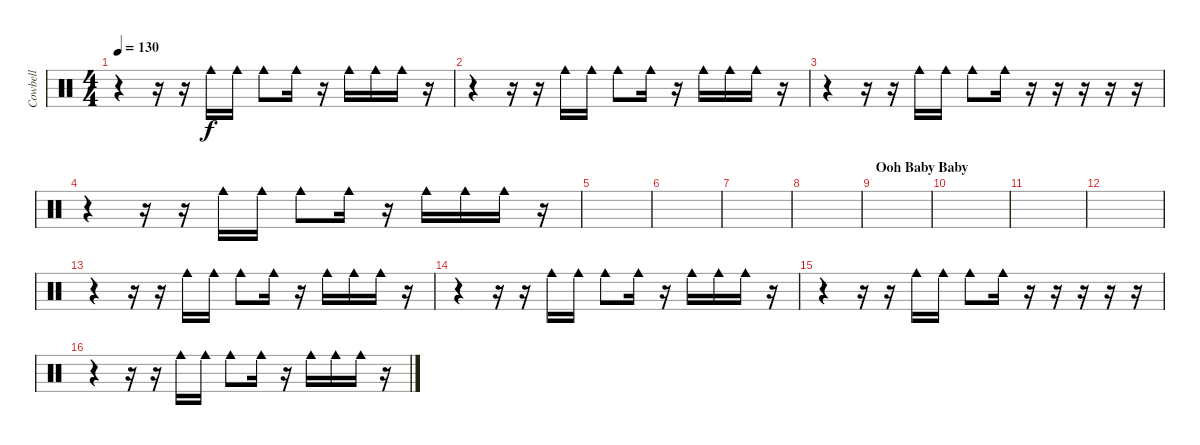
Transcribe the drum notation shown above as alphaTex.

\track ("Cowbell" "Cowbell") {instrument percussion}
\staff {score}
\articulation defaults
\ts (4 4)
\tempo 130
\clef neutral
\ks c
r.4{dy f} r.16 r.16 "Cowbell medium (hit)".16 "Cowbell medium (hit)".16 "Cowbell medium (hit)".8 "Cowbell medium (hit)".16 r.16 "Cowbell medium (hit)".16 "Cowbell medium (hit)".16 "Cowbell medium (hit)".16 r.16 |
r.4 r.16 r.16 "Cowbell medium (hit)".16 "Cowbell medium (hit)".16 "Cowbell medium (hit)".8 "Cowbell medium (hit)".16 r.16 "Cowbell medium (hit)".16 "Cowbell medium (hit)".16 "Cowbell medium (hit)".16 r.16 |
r.4 r.16 r.16 "Cowbell medium (hit)".16 "Cowbell medium (hit)".16 "Cowbell medium (hit)".8 "Cowbell medium (hit)".16 r.16 r.16 r.16 r.16 r.16 |
r.4 r.16 r.16 "Cowbell medium (hit)".16 "Cowbell medium (hit)".16 "Cowbell medium (hit)".8 "Cowbell medium (hit)".16 r.16 "Cowbell medium (hit)".16 "Cowbell medium (hit)".16 "Cowbell medium (hit)".16 r.16 |
|
|
|
|
\section ("" "Ooh Baby Baby")
|
|
|
|
r.4 r.16 r.16 "Cowbell medium (hit)".16 "Cowbell medium (hit)".16 "Cowbell medium (hit)".8 "Cowbell medium (hit)".16 r.16 "Cowbell medium (hit)".16 "Cowbell medium (hit)".16 "Cowbell medium (hit)".16 r.16 |
r.4 r.16 r.16 "Cowbell medium (hit)".16 "Cowbell medium (hit)".16 "Cowbell medium (hit)".8 "Cowbell medium (hit)".16 r.16 "Cowbell medium (hit)".16 "Cowbell medium (hit)".16 "Cowbell medium (hit)".16 r.16 |
r.4 r.16 r.16 "Cowbell medium (hit)".16 "Cowbell medium (hit)".16 "Cowbell medium (hit)".8 "Cowbell medium (hit)".16 r.16 r.16 r.16 r.16 r.16 |
r.4 r.16 r.16 "Cowbell medium (hit)".16 "Cowbell medium (hit)".16 "Cowbell medium (hit)".8 "Cowbell medium (hit)".16 r.16 "Cowbell medium (hit)".16 "Cowbell medium (hit)".16 "Cowbell medium (hit)".16 r.16
